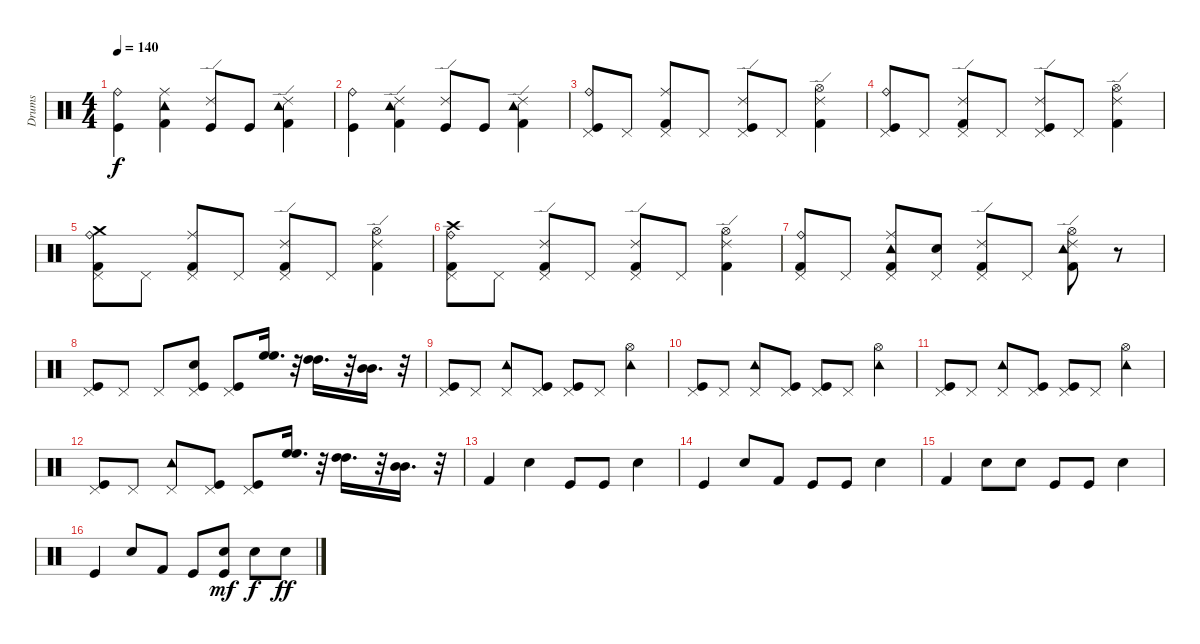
\track ("Drums" "Drums") {instrument percussion}
\staff {score}
\articulation defaults
\ts (4 4)
\tempo 140
\clef neutral
\ks c
("Ride (bell)" "Kick (hit)").4{dy f} ("Ride (middle)" "Tambourine (hit)" "Kick (hit) 2").4 ("Ride (edge) 2" "Kick (hit)").8 "Kick (hit)".8 ("Ride (edge) 2" "Tambourine (hit)" "Kick (hit) 2").4 |
("Ride (bell)" "Kick (hit)").4 ("Ride (edge) 2" "Tambourine (hit)" "Kick (hit) 2").4 ("Ride (edge) 2" "Kick (hit)").8 "Kick (hit)".8 ("Ride (edge) 2" "Tambourine (hit)" "Kick (hit) 2").4 |
("Ride (bell)" "Pedal Hi-Hat (hit)" "Kick (hit)").8 "Pedal Hi-Hat (hit)".8 ("Ride (middle)" "Pedal Hi-Hat (hit)" "Kick (hit) 2").8 "Pedal Hi-Hat (hit)".8 ("Ride (edge) 2" "Pedal Hi-Hat (hit)" "Kick (hit)").8 "Pedal Hi-Hat (hit)".8 ("Ride (edge) 2" "Hi-Hat (open)" "Kick (hit) 2").4 |
("Ride (bell)" "Pedal Hi-Hat (hit)" "Kick (hit)").8 "Pedal Hi-Hat (hit)".8 ("Ride (edge) 2" "Pedal Hi-Hat (hit)" "Kick (hit) 2").8 "Pedal Hi-Hat (hit)".8 ("Ride (edge) 2" "Pedal Hi-Hat (hit)" "Kick (hit)").8 "Pedal Hi-Hat (hit)".8 ("Ride (edge) 2" "Hi-Hat (open)" "Kick (hit) 2").4 |
("Crash medium (hit)" "Ride (bell)" "Pedal Hi-Hat (hit)" "Kick (hit) 2").8 "Pedal Hi-Hat (hit)".8 ("Ride (middle)" "Pedal Hi-Hat (hit)" "Kick (hit) 2").8 "Pedal Hi-Hat (hit)".8 ("Ride (edge) 2" "Pedal Hi-Hat (hit)" "Kick (hit) 2").8 "Pedal Hi-Hat (hit)".8 ("Ride (edge) 2" "Hi-Hat (open)" "Kick (hit) 2").4 |
("Crash high (hit)" "Ride (bell)" "Pedal Hi-Hat (hit)" "Kick (hit) 2").8 "Pedal Hi-Hat (hit)".8 ("Ride (edge) 2" "Pedal Hi-Hat (hit)" "Kick (hit) 2").8 "Pedal Hi-Hat (hit)".8 ("Ride (edge) 2" "Pedal Hi-Hat (hit)" "Kick (hit) 2").8 "Pedal Hi-Hat (hit)".8 ("Ride (edge) 2" "Hi-Hat (open)" "Kick (hit) 2").4 |
("Ride (bell)" "Pedal Hi-Hat (hit)" "Kick (hit) 2").8 "Pedal Hi-Hat (hit)".8 ("Ride (middle)" "Pedal Hi-Hat (hit)" "Tambourine (hit)" "Kick (hit) 2").8 ("Pedal Hi-Hat (hit)" "Electric Snare (hit)").8 ("Ride (edge) 2" "Pedal Hi-Hat (hit)" "Kick (hit) 2").8 "Pedal Hi-Hat (hit)".8 ("Ride (edge) 2" "Hi-Hat (open)" "Tambourine (hit)" "Kick (hit) 2").8 r.8 |
("Pedal Hi-Hat (hit)" "Kick (hit)").8 "Pedal Hi-Hat (hit)".8 "Pedal Hi-Hat (hit)".8 ("Pedal Hi-Hat (hit)" "Electric Snare (hit)" "Kick (hit)").8 ("Pedal Hi-Hat (hit)" "Kick (hit)").8 ("High Floor Tom (hit)" "High Floor Tom (hit)").16{d} r.32 ("High Tom (hit)" "High Tom (hit)").16{d} r.32 ("Mid Tom (hit)" "Mid Tom (hit)").16{d} r.32 |
("Pedal Hi-Hat (hit)" "Kick (hit)").8 "Pedal Hi-Hat (hit)".8 ("Pedal Hi-Hat (hit)" "Tambourine (hit)").8 ("Pedal Hi-Hat (hit)" "Kick (hit)").8 ("Pedal Hi-Hat (hit)" "Kick (hit)").8 "Pedal Hi-Hat (hit)".8 ("Hi-Hat (open)" "Tambourine (hit)").4 |
("Pedal Hi-Hat (hit)" "Kick (hit)").8 "Pedal Hi-Hat (hit)".8 ("Pedal Hi-Hat (hit)" "Tambourine (hit)").8 ("Pedal Hi-Hat (hit)" "Kick (hit)").8 ("Pedal Hi-Hat (hit)" "Kick (hit)").8 "Pedal Hi-Hat (hit)".8 ("Hi-Hat (open)" "Tambourine (hit)").4 |
("Pedal Hi-Hat (hit)" "Kick (hit)").8 "Pedal Hi-Hat (hit)".8 ("Pedal Hi-Hat (hit)" "Tambourine (hit)").8 ("Pedal Hi-Hat (hit)" "Kick (hit)").8 ("Pedal Hi-Hat (hit)" "Kick (hit)").8 "Pedal Hi-Hat (hit)".8 ("Hi-Hat (open)" "Tambourine (hit)").4 |
("Pedal Hi-Hat (hit)" "Kick (hit)").8 "Pedal Hi-Hat (hit)".8 ("Pedal Hi-Hat (hit)" "Tambourine (hit)").8 ("Pedal Hi-Hat (hit)" "Kick (hit)").8 ("Pedal Hi-Hat (hit)" "Kick (hit)").8 ("High Floor Tom (hit)" "High Floor Tom (hit)").16{d} r.32 ("High Tom (hit)" "High Tom (hit)").16{d} r.32 ("Mid Tom (hit)" "Mid Tom (hit)").16{d} r.32 |
"Kick (hit) 2".4 "Electric Snare (hit)".4 "Kick (hit)".8 "Kick (hit)".8 "Electric Snare (hit)".4 |
"Kick (hit)".4 "Electric Snare (hit)".8 "Kick (hit) 2".8 "Kick (hit)".8 "Kick (hit)".8 "Electric Snare (hit)".4 |
"Kick (hit) 2".4 "Electric Snare (hit)".8 "Electric Snare (hit)".8 "Kick (hit)".8 "Kick (hit)".8 "Electric Snare (hit)".4 |
"Kick (hit)".4 "Electric Snare (hit)".8 "Kick (hit) 2".8 "Kick (hit)".8 ("Electric Snare (hit)" "Kick (hit)").8{dy mf} "Electric Snare (hit)".8{dy f} "Electric Snare (hit)".8{dy ff}
